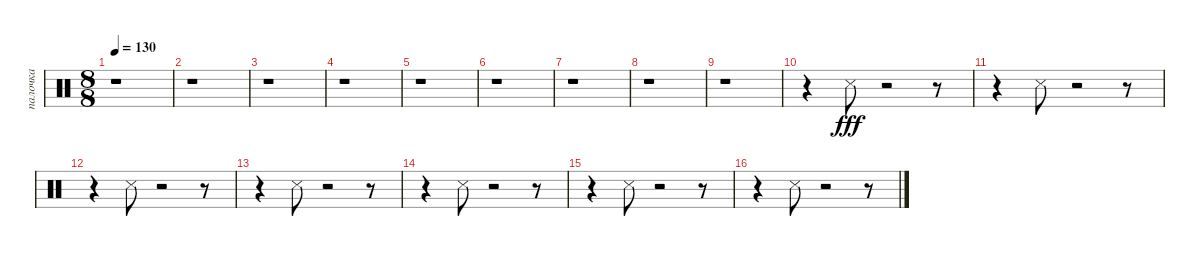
\track ("палочка" "палочка") {instrument percussion}
\staff {score}
\articulation defaults
\ts (8 8)
\tempo 130
\clef neutral
\ks c
r.1{dy fff} |
r.1 |
r.1 |
r.1 |
r.1 |
r.1 |
r.1 |
r.1 |
r.1 |
r.4 "Snare (side stick) 3".8 r.2 r.8 |
r.4 "Snare (side stick) 3".8 r.2 r.8 |
r.4 "Snare (side stick) 3".8 r.2 r.8 |
r.4 "Snare (side stick) 3".8 r.2 r.8 |
r.4 "Snare (side stick) 3".8 r.2 r.8 |
r.4 "Snare (side stick) 3".8 r.2 r.8 |
r.4 "Snare (side stick) 3".8 r.2 r.8
